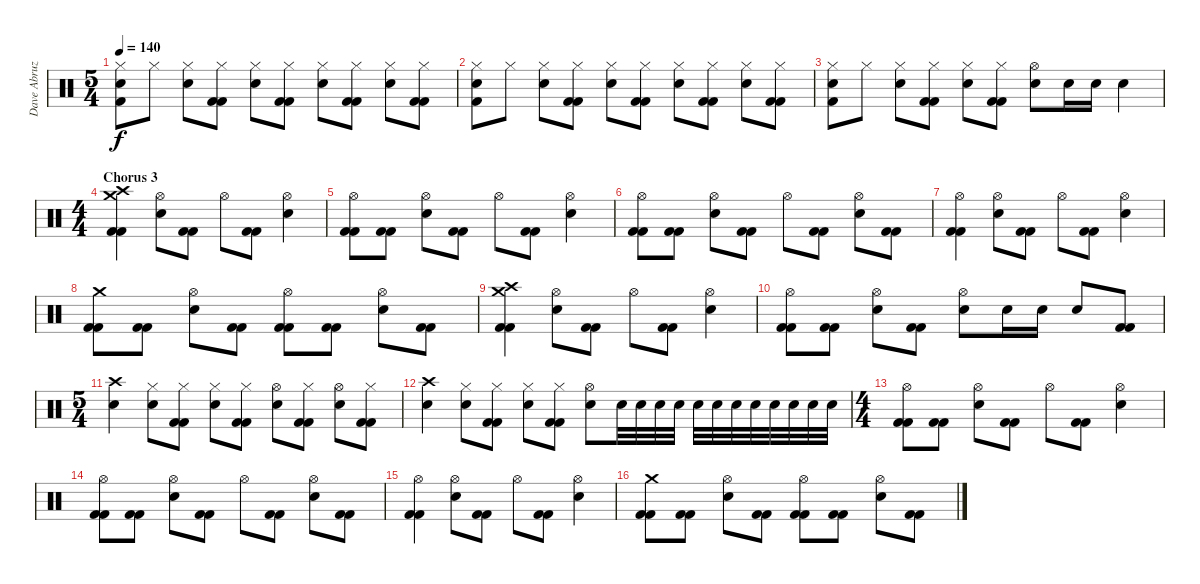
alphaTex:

\track ("Dave Abruzzese" "Dave Abruz") {instrument percussion}
\staff {score}
\articulation defaults
\ts (5 4)
\tempo 140
\clef neutral
\ks c
("Kick (hit) 2" "Electric Snare (hit)" "Hi-Hat (closed)").8{dy f} "Hi-Hat (closed)".8 ("Electric Snare (hit)" "Hi-Hat (closed)").8 ("Kick (hit) 2" "Kick (hit) 2" "Hi-Hat (closed)").8 ("Electric Snare (hit)" "Hi-Hat (closed)").8 ("Kick (hit) 2" "Kick (hit) 2" "Hi-Hat (closed)").8 ("Electric Snare (hit)" "Hi-Hat (closed)").8 ("Kick (hit) 2" "Kick (hit) 2" "Hi-Hat (closed)").8 ("Electric Snare (hit)" "Hi-Hat (closed)").8 ("Kick (hit) 2" "Kick (hit) 2" "Hi-Hat (closed)").8 |
("Kick (hit) 2" "Electric Snare (hit)" "Hi-Hat (closed)").8 "Hi-Hat (closed)".8 ("Electric Snare (hit)" "Hi-Hat (closed)").8 ("Kick (hit) 2" "Kick (hit) 2" "Hi-Hat (closed)").8 ("Electric Snare (hit)" "Hi-Hat (closed)").8 ("Kick (hit) 2" "Kick (hit) 2" "Hi-Hat (closed)").8 ("Electric Snare (hit)" "Hi-Hat (closed)").8 ("Kick (hit) 2" "Kick (hit) 2" "Hi-Hat (closed)").8 ("Electric Snare (hit)" "Hi-Hat (closed)").8 ("Kick (hit) 2" "Kick (hit) 2" "Hi-Hat (closed)").8 |
("Kick (hit) 2" "Electric Snare (hit)" "Hi-Hat (closed)").8 "Hi-Hat (closed)".8 ("Electric Snare (hit)" "Hi-Hat (closed)").8 ("Kick (hit) 2" "Kick (hit) 2" "Hi-Hat (closed)").8 ("Electric Snare (hit)" "Hi-Hat (closed)").8 ("Kick (hit) 2" "Kick (hit) 2" "Hi-Hat (closed)").8 ("Electric Snare (hit)" "Hi-Hat (open)").8 "Electric Snare (hit)".16 "Electric Snare (hit)".16 "Electric Snare (hit)".4 |
\ts (4 4)
\section ("" "Chorus 3")
("Crash medium (hit)" "Kick (hit) 2" "Kick (hit) 2" "Crash high (hit)").4 ("Electric Snare (hit)" "Hi-Hat (open)").8 ("Kick (hit) 2" "Kick (hit) 2").8 "Hi-Hat (open)".8 ("Kick (hit) 2" "Kick (hit) 2").8 ("Electric Snare (hit)" "Hi-Hat (open)").4 |
("Kick (hit) 2" "Kick (hit) 2" "Hi-Hat (open)").8 ("Kick (hit) 2" "Kick (hit) 2").8 ("Electric Snare (hit)" "Hi-Hat (open)").8 ("Kick (hit) 2" "Kick (hit) 2").8 "Hi-Hat (open)".8 ("Kick (hit) 2" "Kick (hit) 2").8 ("Electric Snare (hit)" "Hi-Hat (open)").4 |
("Kick (hit) 2" "Kick (hit) 2" "Hi-Hat (open)").8 ("Kick (hit) 2" "Kick (hit) 2").8 ("Electric Snare (hit)" "Hi-Hat (open)").8 ("Kick (hit) 2" "Kick (hit) 2").8 "Hi-Hat (open)".8 ("Kick (hit) 2" "Kick (hit) 2").8 ("Electric Snare (hit)" "Hi-Hat (open)").8 ("Kick (hit) 2" "Kick (hit) 2").8 |
("Kick (hit) 2" "Kick (hit) 2" "Hi-Hat (open)").4 ("Electric Snare (hit)" "Hi-Hat (open)").8 ("Kick (hit) 2" "Kick (hit) 2").8 "Hi-Hat (open)".8 ("Kick (hit) 2" "Kick (hit) 2").8 ("Electric Snare (hit)" "Hi-Hat (open)").4 |
("Kick (hit) 2" "Kick (hit) 2" "Crash medium (hit)").8 ("Kick (hit) 2" "Kick (hit) 2").8 ("Electric Snare (hit)" "Hi-Hat (open)").8 ("Kick (hit) 2" "Kick (hit) 2").8 ("Kick (hit) 2" "Kick (hit) 2" "Hi-Hat (open)").8 ("Kick (hit) 2" "Kick (hit) 2").8 ("Electric Snare (hit)" "Hi-Hat (open)").8 ("Kick (hit) 2" "Kick (hit) 2").8 |
("Crash medium (hit)" "Kick (hit) 2" "Kick (hit) 2" "Crash high (hit)").4 ("Electric Snare (hit)" "Hi-Hat (open)").8 ("Kick (hit) 2" "Kick (hit) 2").8 "Hi-Hat (open)".8 ("Kick (hit) 2" "Kick (hit) 2").8 ("Electric Snare (hit)" "Hi-Hat (open)").4 |
("Kick (hit) 2" "Kick (hit) 2" "Hi-Hat (open)").8 ("Kick (hit) 2" "Kick (hit) 2").8 ("Electric Snare (hit)" "Hi-Hat (open)").8 ("Kick (hit) 2" "Kick (hit) 2").8 ("Electric Snare (hit)" "Hi-Hat (open)").8 "Electric Snare (hit)".16 "Electric Snare (hit)".16 "Electric Snare (hit)".8 ("Kick (hit) 2" "Kick (hit) 2").8 |
\ts (5 4)
("Electric Snare (hit)" "Crash high (hit)").4 ("Electric Snare (hit)" "Hi-Hat (closed)").8 ("Kick (hit) 2" "Kick (hit) 2" "Hi-Hat (closed)").8 ("Electric Snare (hit)" "Hi-Hat (closed)").8 ("Kick (hit) 2" "Kick (hit) 2" "Hi-Hat (closed)").8 ("Electric Snare (hit)" "Hi-Hat (open)").8 ("Kick (hit) 2" "Kick (hit) 2" "Hi-Hat (closed)").8 ("Electric Snare (hit)" "Hi-Hat (open)").8 ("Kick (hit) 2" "Kick (hit) 2" "Hi-Hat (closed)").8 |
("Electric Snare (hit)" "Crash high (hit)").4 ("Electric Snare (hit)" "Hi-Hat (closed)").8 ("Kick (hit) 2" "Kick (hit) 2" "Hi-Hat (closed)").8 ("Electric Snare (hit)" "Hi-Hat (closed)").8 ("Kick (hit) 2" "Kick (hit) 2" "Hi-Hat (closed)").8 ("Electric Snare (hit)" "Hi-Hat (open)").8 "Electric Snare (hit)".32 "Electric Snare (hit)".32 "Electric Snare (hit)".32 "Electric Snare (hit)".32 "Electric Snare (hit)".32 "Electric Snare (hit)".32 "Electric Snare (hit)".32 "Electric Snare (hit)".32 "Electric Snare (hit)".32 "Electric Snare (hit)".32 "Electric Snare (hit)".32 "Electric Snare (hit)".32 |
\ts (4 4)
("Kick (hit) 2" "Kick (hit) 2" "Hi-Hat (open)").8 ("Kick (hit) 2" "Kick (hit) 2").8 ("Electric Snare (hit)" "Hi-Hat (open)").8 ("Kick (hit) 2" "Kick (hit) 2").8 "Hi-Hat (open)".8 ("Kick (hit) 2" "Kick (hit) 2").8 ("Electric Snare (hit)" "Hi-Hat (open)").4 |
("Kick (hit) 2" "Kick (hit) 2" "Hi-Hat (open)").8 ("Kick (hit) 2" "Kick (hit) 2").8 ("Electric Snare (hit)" "Hi-Hat (open)").8 ("Kick (hit) 2" "Kick (hit) 2").8 "Hi-Hat (open)".8 ("Kick (hit) 2" "Kick (hit) 2").8 ("Electric Snare (hit)" "Hi-Hat (open)").8 ("Kick (hit) 2" "Kick (hit) 2").8 |
("Kick (hit) 2" "Kick (hit) 2" "Hi-Hat (open)").4 ("Electric Snare (hit)" "Hi-Hat (open)").8 ("Kick (hit) 2" "Kick (hit) 2").8 "Hi-Hat (open)".8 ("Kick (hit) 2" "Kick (hit) 2").8 ("Electric Snare (hit)" "Hi-Hat (open)").4 |
("Kick (hit) 2" "Kick (hit) 2" "Crash medium (hit)").8 ("Kick (hit) 2" "Kick (hit) 2").8 ("Electric Snare (hit)" "Hi-Hat (open)").8 ("Kick (hit) 2" "Kick (hit) 2").8 ("Kick (hit) 2" "Kick (hit) 2" "Hi-Hat (open)").8 ("Kick (hit) 2" "Kick (hit) 2").8 ("Electric Snare (hit)" "Hi-Hat (open)").8 ("Kick (hit) 2" "Kick (hit) 2").8
